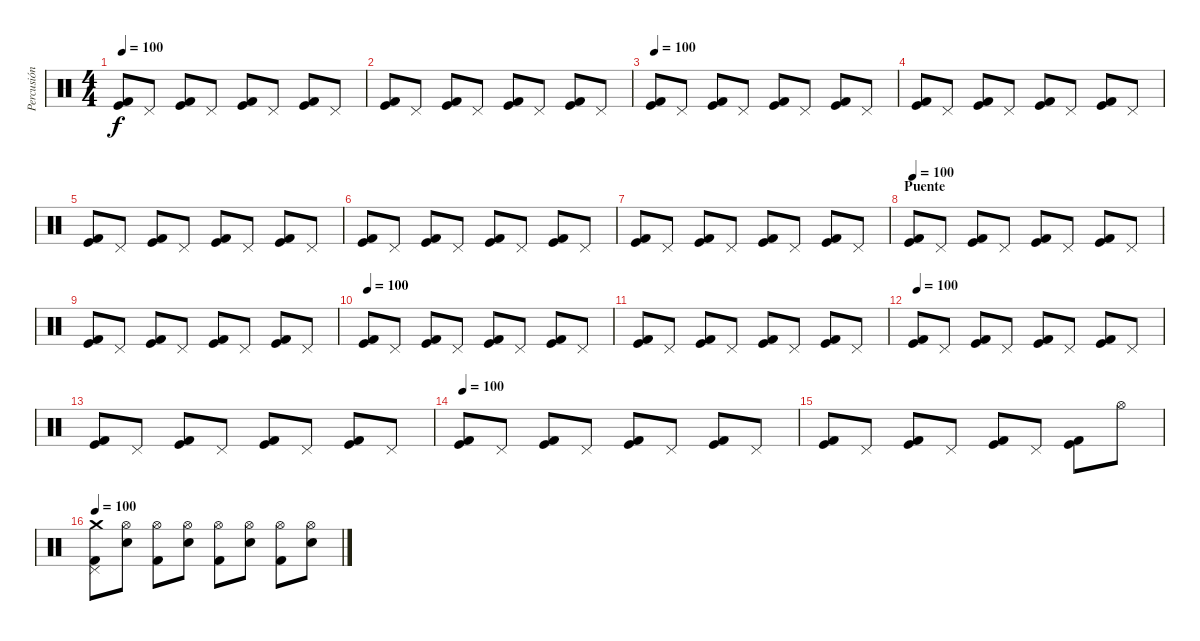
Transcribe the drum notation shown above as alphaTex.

\track ("Percusión" "Percusión") {instrument percussion}
\staff {score}
\articulation defaults
\ts (4 4)
\tempo 100
\clef neutral
\ks c
("Kick (hit) 2" "Kick (hit)").8{dy f} "Pedal Hi-Hat (hit)".8 ("Kick (hit) 2" "Kick (hit)").8 "Pedal Hi-Hat (hit)".8 ("Kick (hit) 2" "Kick (hit)").8 "Pedal Hi-Hat (hit)".8 ("Kick (hit) 2" "Kick (hit)").8 "Pedal Hi-Hat (hit)".8 |
("Kick (hit) 2" "Kick (hit)").8 "Pedal Hi-Hat (hit)".8 ("Kick (hit) 2" "Kick (hit)").8 "Pedal Hi-Hat (hit)".8 ("Kick (hit) 2" "Kick (hit)").8 "Pedal Hi-Hat (hit)".8 ("Kick (hit) 2" "Kick (hit)").8 "Pedal Hi-Hat (hit)".8 |
\tempo 100
("Kick (hit) 2" "Kick (hit)").8 "Pedal Hi-Hat (hit)".8 ("Kick (hit) 2" "Kick (hit)").8 "Pedal Hi-Hat (hit)".8 ("Kick (hit) 2" "Kick (hit)").8 "Pedal Hi-Hat (hit)".8 ("Kick (hit) 2" "Kick (hit)").8 "Pedal Hi-Hat (hit)".8 |
("Kick (hit) 2" "Kick (hit)").8 "Pedal Hi-Hat (hit)".8 ("Kick (hit) 2" "Kick (hit)").8 "Pedal Hi-Hat (hit)".8 ("Kick (hit) 2" "Kick (hit)").8 "Pedal Hi-Hat (hit)".8 ("Kick (hit) 2" "Kick (hit)").8 "Pedal Hi-Hat (hit)".8 |
("Kick (hit) 2" "Kick (hit)").8 "Pedal Hi-Hat (hit)".8 ("Kick (hit) 2" "Kick (hit)").8 "Pedal Hi-Hat (hit)".8 ("Kick (hit) 2" "Kick (hit)").8 "Pedal Hi-Hat (hit)".8 ("Kick (hit) 2" "Kick (hit)").8 "Pedal Hi-Hat (hit)".8 |
("Kick (hit) 2" "Kick (hit)").8 "Pedal Hi-Hat (hit)".8 ("Kick (hit) 2" "Kick (hit)").8 "Pedal Hi-Hat (hit)".8 ("Kick (hit) 2" "Kick (hit)").8 "Pedal Hi-Hat (hit)".8 ("Kick (hit) 2" "Kick (hit)").8 "Pedal Hi-Hat (hit)".8 |
("Kick (hit) 2" "Kick (hit)").8 "Pedal Hi-Hat (hit)".8 ("Kick (hit) 2" "Kick (hit)").8 "Pedal Hi-Hat (hit)".8 ("Kick (hit) 2" "Kick (hit)").8 "Pedal Hi-Hat (hit)".8 ("Kick (hit) 2" "Kick (hit)").8 "Pedal Hi-Hat (hit)".8 |
\section ("" "Puente")
\tempo 100
("Kick (hit) 2" "Kick (hit)").8 "Pedal Hi-Hat (hit)".8 ("Kick (hit) 2" "Kick (hit)").8 "Pedal Hi-Hat (hit)".8 ("Kick (hit) 2" "Kick (hit)").8 "Pedal Hi-Hat (hit)".8 ("Kick (hit) 2" "Kick (hit)").8 "Pedal Hi-Hat (hit)".8 |
("Kick (hit) 2" "Kick (hit)").8 "Pedal Hi-Hat (hit)".8 ("Kick (hit) 2" "Kick (hit)").8 "Pedal Hi-Hat (hit)".8 ("Kick (hit) 2" "Kick (hit)").8 "Pedal Hi-Hat (hit)".8 ("Kick (hit) 2" "Kick (hit)").8 "Pedal Hi-Hat (hit)".8 |
\tempo 100
("Kick (hit) 2" "Kick (hit)").8 "Pedal Hi-Hat (hit)".8 ("Kick (hit) 2" "Kick (hit)").8 "Pedal Hi-Hat (hit)".8 ("Kick (hit) 2" "Kick (hit)").8 "Pedal Hi-Hat (hit)".8 ("Kick (hit) 2" "Kick (hit)").8 "Pedal Hi-Hat (hit)".8 |
("Kick (hit) 2" "Kick (hit)").8 "Pedal Hi-Hat (hit)".8 ("Kick (hit) 2" "Kick (hit)").8 "Pedal Hi-Hat (hit)".8 ("Kick (hit) 2" "Kick (hit)").8 "Pedal Hi-Hat (hit)".8 ("Kick (hit) 2" "Kick (hit)").8 "Pedal Hi-Hat (hit)".8 |
\tempo 100
("Kick (hit) 2" "Kick (hit)").8 "Pedal Hi-Hat (hit)".8 ("Kick (hit) 2" "Kick (hit)").8 "Pedal Hi-Hat (hit)".8 ("Kick (hit) 2" "Kick (hit)").8 "Pedal Hi-Hat (hit)".8 ("Kick (hit) 2" "Kick (hit)").8 "Pedal Hi-Hat (hit)".8 |
("Kick (hit) 2" "Kick (hit)").8 "Pedal Hi-Hat (hit)".8 ("Kick (hit) 2" "Kick (hit)").8 "Pedal Hi-Hat (hit)".8 ("Kick (hit) 2" "Kick (hit)").8 "Pedal Hi-Hat (hit)".8 ("Kick (hit) 2" "Kick (hit)").8 "Pedal Hi-Hat (hit)".8 |
\tempo 100
("Kick (hit) 2" "Kick (hit)").8 "Pedal Hi-Hat (hit)".8 ("Kick (hit) 2" "Kick (hit)").8 "Pedal Hi-Hat (hit)".8 ("Kick (hit) 2" "Kick (hit)").8 "Pedal Hi-Hat (hit)".8 ("Kick (hit) 2" "Kick (hit)").8 "Pedal Hi-Hat (hit)".8 |
("Kick (hit) 2" "Kick (hit)").8 "Pedal Hi-Hat (hit)".8 ("Kick (hit) 2" "Kick (hit)").8 "Pedal Hi-Hat (hit)".8 ("Kick (hit) 2" "Kick (hit)").8 "Pedal Hi-Hat (hit)".8 ("Kick (hit) 2" "Kick (hit)").8 "Hi-Hat (open)".8 |
\tempo 100
("Crash medium (hit)" "Kick (hit) 2" "Pedal Hi-Hat (hit)").8 ("Hi-Hat (open)" "Snare (hit) 2").8 ("Kick (hit) 2" "Hi-Hat (open)").8 ("Hi-Hat (open)" "Snare (hit) 2").8 ("Kick (hit) 2" "Hi-Hat (open)").8 ("Hi-Hat (open)" "Snare (hit) 2").8 ("Kick (hit) 2" "Hi-Hat (open)").8 ("Hi-Hat (open)" "Snare (hit) 2").8
